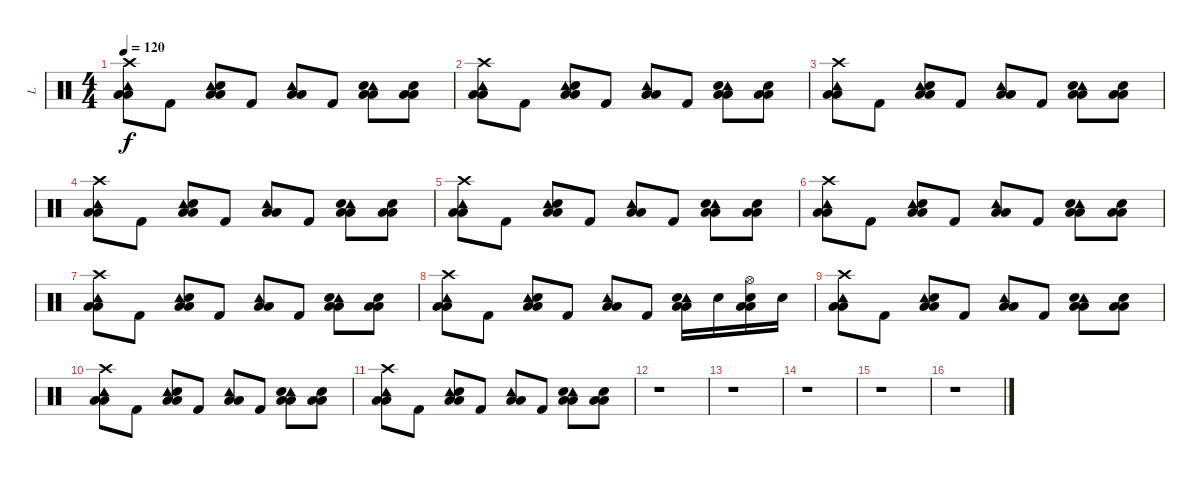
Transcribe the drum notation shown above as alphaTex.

\track ("L" "L") {instrument percussion}
\staff {score}
\articulation defaults
\ts (4 4)
\tempo 120
\clef neutral
\ks c
("Crash high (hit)" "Tambourine (hit)" "Low Floor Tom (hit)" "Low Floor Tom (hit)").8{dy f} "Kick (hit) 2".8 ("Tambourine (hit)" "Electric Snare (hit)" "Low Floor Tom (hit)" "Low Floor Tom (hit)").8 "Kick (hit) 2".8 ("Tambourine (hit)" "Low Floor Tom (hit)" "Low Floor Tom (hit)").8 "Kick (hit) 2".8 ("Tambourine (hit)" "Electric Snare (hit)" "Low Floor Tom (hit)" "Low Floor Tom (hit)").8 ("Electric Snare (hit)" "Low Floor Tom (hit)" "Low Floor Tom (hit)").8 |
("Crash high (hit)" "Tambourine (hit)" "Low Floor Tom (hit)" "Low Floor Tom (hit)").8 "Kick (hit) 2".8 ("Tambourine (hit)" "Electric Snare (hit)" "Low Floor Tom (hit)" "Low Floor Tom (hit)").8 "Kick (hit) 2".8 ("Tambourine (hit)" "Low Floor Tom (hit)" "Low Floor Tom (hit)").8 "Kick (hit) 2".8 ("Tambourine (hit)" "Electric Snare (hit)" "Low Floor Tom (hit)" "Low Floor Tom (hit)").8 ("Electric Snare (hit)" "Low Floor Tom (hit)" "Low Floor Tom (hit)").8 |
("Crash high (hit)" "Tambourine (hit)" "Low Floor Tom (hit)" "Low Floor Tom (hit)").8 "Kick (hit) 2".8 ("Tambourine (hit)" "Electric Snare (hit)" "Low Floor Tom (hit)" "Low Floor Tom (hit)").8 "Kick (hit) 2".8 ("Tambourine (hit)" "Low Floor Tom (hit)" "Low Floor Tom (hit)").8 "Kick (hit) 2".8 ("Tambourine (hit)" "Electric Snare (hit)" "Low Floor Tom (hit)" "Low Floor Tom (hit)").8 ("Electric Snare (hit)" "Low Floor Tom (hit)" "Low Floor Tom (hit)").8 |
("Crash high (hit)" "Tambourine (hit)" "Low Floor Tom (hit)" "Low Floor Tom (hit)").8 "Kick (hit) 2".8 ("Tambourine (hit)" "Electric Snare (hit)" "Low Floor Tom (hit)" "Low Floor Tom (hit)").8 "Kick (hit) 2".8 ("Tambourine (hit)" "Low Floor Tom (hit)" "Low Floor Tom (hit)").8 "Kick (hit) 2".8 ("Tambourine (hit)" "Electric Snare (hit)" "Low Floor Tom (hit)" "Low Floor Tom (hit)").8 ("Electric Snare (hit)" "Low Floor Tom (hit)" "Low Floor Tom (hit)").8 |
("Crash high (hit)" "Tambourine (hit)" "Low Floor Tom (hit)" "Low Floor Tom (hit)").8 "Kick (hit) 2".8 ("Tambourine (hit)" "Electric Snare (hit)" "Low Floor Tom (hit)" "Low Floor Tom (hit)").8 "Kick (hit) 2".8 ("Tambourine (hit)" "Low Floor Tom (hit)" "Low Floor Tom (hit)").8 "Kick (hit) 2".8 ("Tambourine (hit)" "Electric Snare (hit)" "Low Floor Tom (hit)" "Low Floor Tom (hit)").8 ("Electric Snare (hit)" "Low Floor Tom (hit)" "Low Floor Tom (hit)").8 |
("Crash high (hit)" "Tambourine (hit)" "Low Floor Tom (hit)" "Low Floor Tom (hit)").8 "Kick (hit) 2".8 ("Tambourine (hit)" "Electric Snare (hit)" "Low Floor Tom (hit)" "Low Floor Tom (hit)").8 "Kick (hit) 2".8 ("Tambourine (hit)" "Low Floor Tom (hit)" "Low Floor Tom (hit)").8 "Kick (hit) 2".8 ("Tambourine (hit)" "Electric Snare (hit)" "Low Floor Tom (hit)" "Low Floor Tom (hit)").8 ("Electric Snare (hit)" "Low Floor Tom (hit)" "Low Floor Tom (hit)").8 |
("Crash high (hit)" "Tambourine (hit)" "Low Floor Tom (hit)" "Low Floor Tom (hit)").8 "Kick (hit) 2".8 ("Tambourine (hit)" "Electric Snare (hit)" "Low Floor Tom (hit)" "Low Floor Tom (hit)").8 "Kick (hit) 2".8 ("Tambourine (hit)" "Low Floor Tom (hit)" "Low Floor Tom (hit)").8 "Kick (hit) 2".8 ("Tambourine (hit)" "Electric Snare (hit)" "Low Floor Tom (hit)" "Low Floor Tom (hit)").8 ("Electric Snare (hit)" "Low Floor Tom (hit)" "Low Floor Tom (hit)").8 |
("Crash high (hit)" "Tambourine (hit)" "Low Floor Tom (hit)" "Low Floor Tom (hit)").8 "Kick (hit) 2".8 ("Tambourine (hit)" "Electric Snare (hit)" "Low Floor Tom (hit)" "Low Floor Tom (hit)").8 "Kick (hit) 2".8 ("Tambourine (hit)" "Low Floor Tom (hit)" "Low Floor Tom (hit)").8 "Kick (hit) 2".8 ("Tambourine (hit)" "Electric Snare (hit)" "Low Floor Tom (hit)" "Low Floor Tom (hit)").16 "Electric Snare (hit)".16 ("Hi-Hat (open)" "Electric Snare (hit)" "Low Floor Tom (hit)" "Low Floor Tom (hit)").16 "Electric Snare (hit)".16 |
("Crash high (hit)" "Tambourine (hit)" "Low Floor Tom (hit)" "Low Floor Tom (hit)").8 "Kick (hit) 2".8 ("Tambourine (hit)" "Electric Snare (hit)" "Low Floor Tom (hit)" "Low Floor Tom (hit)").8 "Kick (hit) 2".8 ("Tambourine (hit)" "Low Floor Tom (hit)" "Low Floor Tom (hit)").8 "Kick (hit) 2".8 ("Tambourine (hit)" "Electric Snare (hit)" "Low Floor Tom (hit)" "Low Floor Tom (hit)").8 ("Electric Snare (hit)" "Low Floor Tom (hit)" "Low Floor Tom (hit)").8 |
("Crash high (hit)" "Tambourine (hit)" "Low Floor Tom (hit)" "Low Floor Tom (hit)").8 "Kick (hit) 2".8 ("Tambourine (hit)" "Electric Snare (hit)" "Low Floor Tom (hit)" "Low Floor Tom (hit)").8 "Kick (hit) 2".8 ("Tambourine (hit)" "Low Floor Tom (hit)" "Low Floor Tom (hit)").8 "Kick (hit) 2".8 ("Tambourine (hit)" "Electric Snare (hit)" "Low Floor Tom (hit)" "Low Floor Tom (hit)").8 ("Electric Snare (hit)" "Low Floor Tom (hit)" "Low Floor Tom (hit)").8 |
("Crash high (hit)" "Tambourine (hit)" "Low Floor Tom (hit)" "Low Floor Tom (hit)").8 "Kick (hit) 2".8 ("Tambourine (hit)" "Electric Snare (hit)" "Low Floor Tom (hit)" "Low Floor Tom (hit)").8 "Kick (hit) 2".8 ("Tambourine (hit)" "Low Floor Tom (hit)" "Low Floor Tom (hit)").8 "Kick (hit) 2".8 ("Tambourine (hit)" "Electric Snare (hit)" "Low Floor Tom (hit)" "Low Floor Tom (hit)").8 ("Electric Snare (hit)" "Low Floor Tom (hit)" "Low Floor Tom (hit)").8 |
r.1 |
r.1 |
r.1 |
r.1 |
r.1
